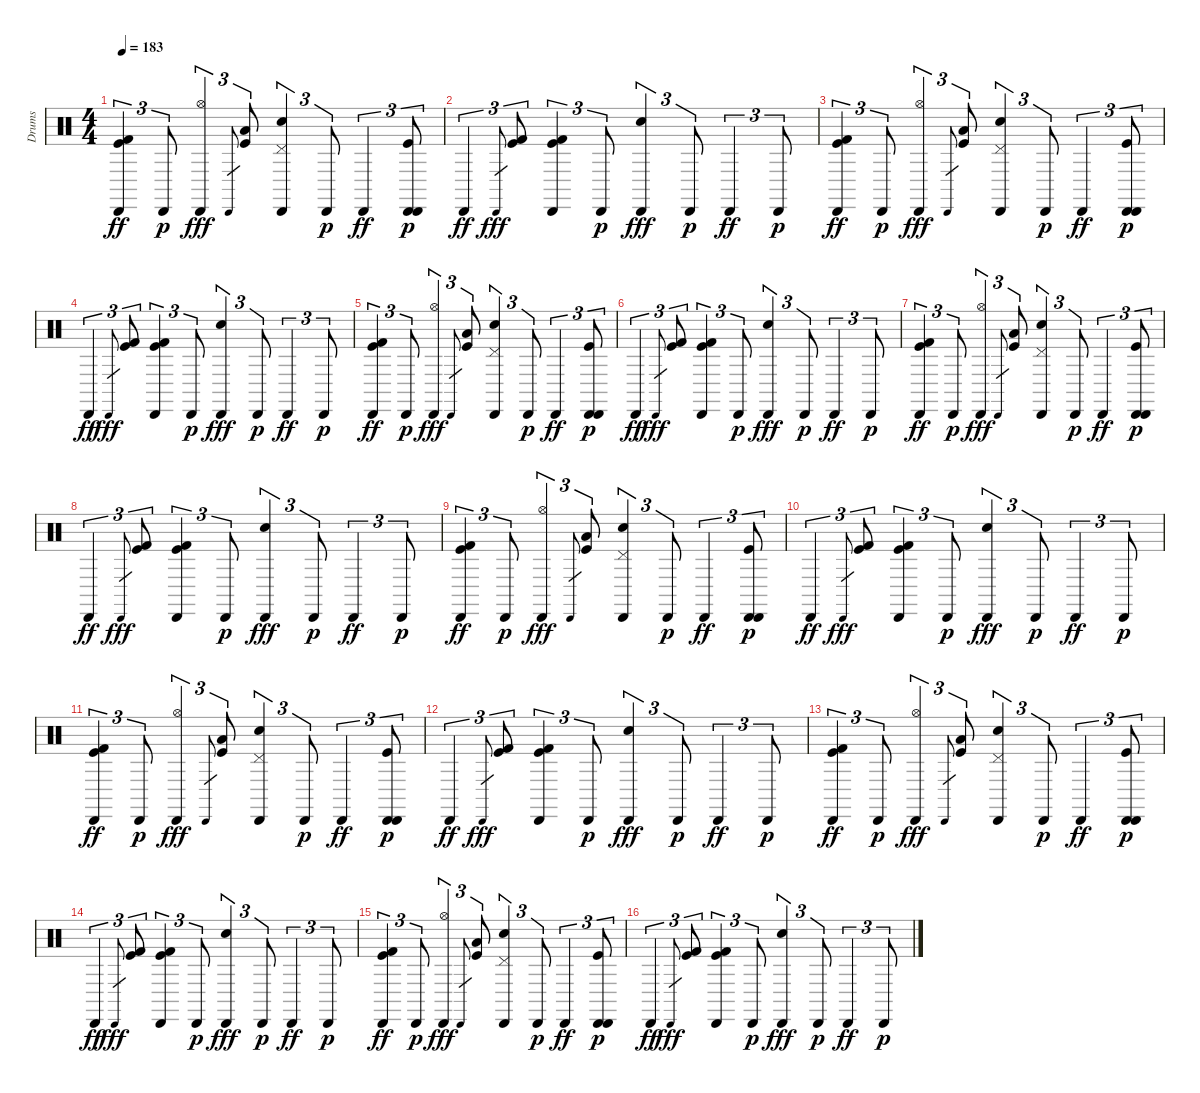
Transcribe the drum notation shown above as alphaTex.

\track ("Drums" "Drums") {instrument percussion}
\staff {score}
\articulation defaults
\ts (4 4)
\tempo 183
\clef neutral
\ks c
("Kick (hit) 2" "Kick (hit)" "Cabasa (hit)").4{tu (3 2) dy ff} "Cabasa (hit)".8{tu (3 2) dy p} ("Cabasa (hit)" "Hi-Hat (open)").4{tu (3 2) dy fff} "Cabasa (hit)".8{gr} ("Kick (hit)" "Low Floor Tom (hit)").8{tu (3 2)} ("Cabasa (hit)" "Electric Snare (hit)" "Pedal Hi-Hat (hit)").4{tu (3 2)} "Cabasa (hit)".8{tu (3 2) dy p} "Cabasa (hit)".4{tu (3 2) dy ff} ("Cabasa (hit)" "Kick (hit)" "Cabasa (hit)").8{tu (3 2) dy p} |
"Cabasa (hit)".4{tu (3 2) dy ff} "Cabasa (hit)".8{gr dy fff} ("Kick (hit)" "Kick (hit) 2").8{tu (3 2)} ("Cabasa (hit)" "Kick (hit)" "Kick (hit) 2").4{tu (3 2)} "Cabasa (hit)".8{tu (3 2) dy p} ("Cabasa (hit)" "Electric Snare (hit)").4{tu (3 2) dy fff} "Cabasa (hit)".8{tu (3 2) dy p} "Cabasa (hit)".4{tu (3 2) dy ff} "Cabasa (hit)".8{tu (3 2) dy p} |
("Kick (hit) 2" "Kick (hit)" "Cabasa (hit)").4{tu (3 2) dy ff} "Cabasa (hit)".8{tu (3 2) dy p} ("Cabasa (hit)" "Hi-Hat (open)").4{tu (3 2) dy fff} "Cabasa (hit)".8{gr} ("Kick (hit)" "Low Floor Tom (hit)").8{tu (3 2)} ("Cabasa (hit)" "Electric Snare (hit)" "Pedal Hi-Hat (hit)").4{tu (3 2)} "Cabasa (hit)".8{tu (3 2) dy p} "Cabasa (hit)".4{tu (3 2) dy ff} ("Cabasa (hit)" "Kick (hit)" "Cabasa (hit)").8{tu (3 2) dy p} |
"Cabasa (hit)".4{tu (3 2) dy ff} "Cabasa (hit)".8{gr dy fff} ("Kick (hit)" "Kick (hit) 2").8{tu (3 2)} ("Cabasa (hit)" "Kick (hit)" "Kick (hit) 2").4{tu (3 2)} "Cabasa (hit)".8{tu (3 2) dy p} ("Cabasa (hit)" "Electric Snare (hit)").4{tu (3 2) dy fff} "Cabasa (hit)".8{tu (3 2) dy p} "Cabasa (hit)".4{tu (3 2) dy ff} "Cabasa (hit)".8{tu (3 2) dy p} |
("Kick (hit) 2" "Kick (hit)" "Cabasa (hit)").4{tu (3 2) dy ff} "Cabasa (hit)".8{tu (3 2) dy p} ("Cabasa (hit)" "Hi-Hat (open)").4{tu (3 2) dy fff} "Cabasa (hit)".8{gr} ("Kick (hit)" "Low Floor Tom (hit)").8{tu (3 2)} ("Cabasa (hit)" "Electric Snare (hit)" "Pedal Hi-Hat (hit)").4{tu (3 2)} "Cabasa (hit)".8{tu (3 2) dy p} "Cabasa (hit)".4{tu (3 2) dy ff} ("Cabasa (hit)" "Kick (hit)" "Cabasa (hit)").8{tu (3 2) dy p} |
"Cabasa (hit)".4{tu (3 2) dy ff} "Cabasa (hit)".8{gr dy fff} ("Kick (hit)" "Kick (hit) 2").8{tu (3 2)} ("Cabasa (hit)" "Kick (hit)" "Kick (hit) 2").4{tu (3 2)} "Cabasa (hit)".8{tu (3 2) dy p} ("Cabasa (hit)" "Electric Snare (hit)").4{tu (3 2) dy fff} "Cabasa (hit)".8{tu (3 2) dy p} "Cabasa (hit)".4{tu (3 2) dy ff} "Cabasa (hit)".8{tu (3 2) dy p} |
("Kick (hit) 2" "Kick (hit)" "Cabasa (hit)").4{tu (3 2) dy ff} "Cabasa (hit)".8{tu (3 2) dy p} ("Cabasa (hit)" "Hi-Hat (open)").4{tu (3 2) dy fff} "Cabasa (hit)".8{gr} ("Kick (hit)" "Low Floor Tom (hit)").8{tu (3 2)} ("Cabasa (hit)" "Electric Snare (hit)" "Pedal Hi-Hat (hit)").4{tu (3 2)} "Cabasa (hit)".8{tu (3 2) dy p} "Cabasa (hit)".4{tu (3 2) dy ff} ("Cabasa (hit)" "Kick (hit)" "Cabasa (hit)").8{tu (3 2) dy p} |
"Cabasa (hit)".4{tu (3 2) dy ff} "Cabasa (hit)".8{gr dy fff} ("Kick (hit)" "Kick (hit) 2").8{tu (3 2)} ("Cabasa (hit)" "Kick (hit)" "Kick (hit) 2").4{tu (3 2)} "Cabasa (hit)".8{tu (3 2) dy p} ("Cabasa (hit)" "Electric Snare (hit)").4{tu (3 2) dy fff} "Cabasa (hit)".8{tu (3 2) dy p} "Cabasa (hit)".4{tu (3 2) dy ff} "Cabasa (hit)".8{tu (3 2) dy p} |
("Kick (hit) 2" "Kick (hit)" "Cabasa (hit)").4{tu (3 2) dy ff} "Cabasa (hit)".8{tu (3 2) dy p} ("Cabasa (hit)" "Hi-Hat (open)").4{tu (3 2) dy fff} "Cabasa (hit)".8{gr} ("Kick (hit)" "Low Floor Tom (hit)").8{tu (3 2)} ("Cabasa (hit)" "Electric Snare (hit)" "Pedal Hi-Hat (hit)").4{tu (3 2)} "Cabasa (hit)".8{tu (3 2) dy p} "Cabasa (hit)".4{tu (3 2) dy ff} ("Cabasa (hit)" "Kick (hit)" "Cabasa (hit)").8{tu (3 2) dy p} |
"Cabasa (hit)".4{tu (3 2) dy ff} "Cabasa (hit)".8{gr dy fff} ("Kick (hit)" "Kick (hit) 2").8{tu (3 2)} ("Cabasa (hit)" "Kick (hit)" "Kick (hit) 2").4{tu (3 2)} "Cabasa (hit)".8{tu (3 2) dy p} ("Cabasa (hit)" "Electric Snare (hit)").4{tu (3 2) dy fff} "Cabasa (hit)".8{tu (3 2) dy p} "Cabasa (hit)".4{tu (3 2) dy ff} "Cabasa (hit)".8{tu (3 2) dy p} |
("Kick (hit) 2" "Kick (hit)" "Cabasa (hit)").4{tu (3 2) dy ff} "Cabasa (hit)".8{tu (3 2) dy p} ("Cabasa (hit)" "Hi-Hat (open)").4{tu (3 2) dy fff} "Cabasa (hit)".8{gr} ("Kick (hit)" "Low Floor Tom (hit)").8{tu (3 2)} ("Cabasa (hit)" "Electric Snare (hit)" "Pedal Hi-Hat (hit)").4{tu (3 2)} "Cabasa (hit)".8{tu (3 2) dy p} "Cabasa (hit)".4{tu (3 2) dy ff} ("Cabasa (hit)" "Kick (hit)" "Cabasa (hit)").8{tu (3 2) dy p} |
"Cabasa (hit)".4{tu (3 2) dy ff} "Cabasa (hit)".8{gr dy fff} ("Kick (hit)" "Kick (hit) 2").8{tu (3 2)} ("Cabasa (hit)" "Kick (hit)" "Kick (hit) 2").4{tu (3 2)} "Cabasa (hit)".8{tu (3 2) dy p} ("Cabasa (hit)" "Electric Snare (hit)").4{tu (3 2) dy fff} "Cabasa (hit)".8{tu (3 2) dy p} "Cabasa (hit)".4{tu (3 2) dy ff} "Cabasa (hit)".8{tu (3 2) dy p} |
("Kick (hit) 2" "Kick (hit)" "Cabasa (hit)").4{tu (3 2) dy ff} "Cabasa (hit)".8{tu (3 2) dy p} ("Cabasa (hit)" "Hi-Hat (open)").4{tu (3 2) dy fff} "Cabasa (hit)".8{gr} ("Kick (hit)" "Low Floor Tom (hit)").8{tu (3 2)} ("Cabasa (hit)" "Electric Snare (hit)" "Pedal Hi-Hat (hit)").4{tu (3 2)} "Cabasa (hit)".8{tu (3 2) dy p} "Cabasa (hit)".4{tu (3 2) dy ff} ("Cabasa (hit)" "Kick (hit)" "Cabasa (hit)").8{tu (3 2) dy p} |
"Cabasa (hit)".4{tu (3 2) dy ff} "Cabasa (hit)".8{gr dy fff} ("Kick (hit)" "Kick (hit) 2").8{tu (3 2)} ("Cabasa (hit)" "Kick (hit)" "Kick (hit) 2").4{tu (3 2)} "Cabasa (hit)".8{tu (3 2) dy p} ("Cabasa (hit)" "Electric Snare (hit)").4{tu (3 2) dy fff} "Cabasa (hit)".8{tu (3 2) dy p} "Cabasa (hit)".4{tu (3 2) dy ff} "Cabasa (hit)".8{tu (3 2) dy p} |
("Kick (hit) 2" "Kick (hit)" "Cabasa (hit)").4{tu (3 2) dy ff} "Cabasa (hit)".8{tu (3 2) dy p} ("Cabasa (hit)" "Hi-Hat (open)").4{tu (3 2) dy fff} "Cabasa (hit)".8{gr} ("Kick (hit)" "Low Floor Tom (hit)").8{tu (3 2)} ("Cabasa (hit)" "Electric Snare (hit)" "Pedal Hi-Hat (hit)").4{tu (3 2)} "Cabasa (hit)".8{tu (3 2) dy p} "Cabasa (hit)".4{tu (3 2) dy ff} ("Cabasa (hit)" "Kick (hit)" "Cabasa (hit)").8{tu (3 2) dy p} |
"Cabasa (hit)".4{tu (3 2) dy ff} "Cabasa (hit)".8{gr dy fff} ("Kick (hit)" "Kick (hit) 2").8{tu (3 2)} ("Cabasa (hit)" "Kick (hit)" "Kick (hit) 2").4{tu (3 2)} "Cabasa (hit)".8{tu (3 2) dy p} ("Cabasa (hit)" "Electric Snare (hit)").4{tu (3 2) dy fff} "Cabasa (hit)".8{tu (3 2) dy p} "Cabasa (hit)".4{tu (3 2) dy ff} "Cabasa (hit)".8{tu (3 2) dy p}
